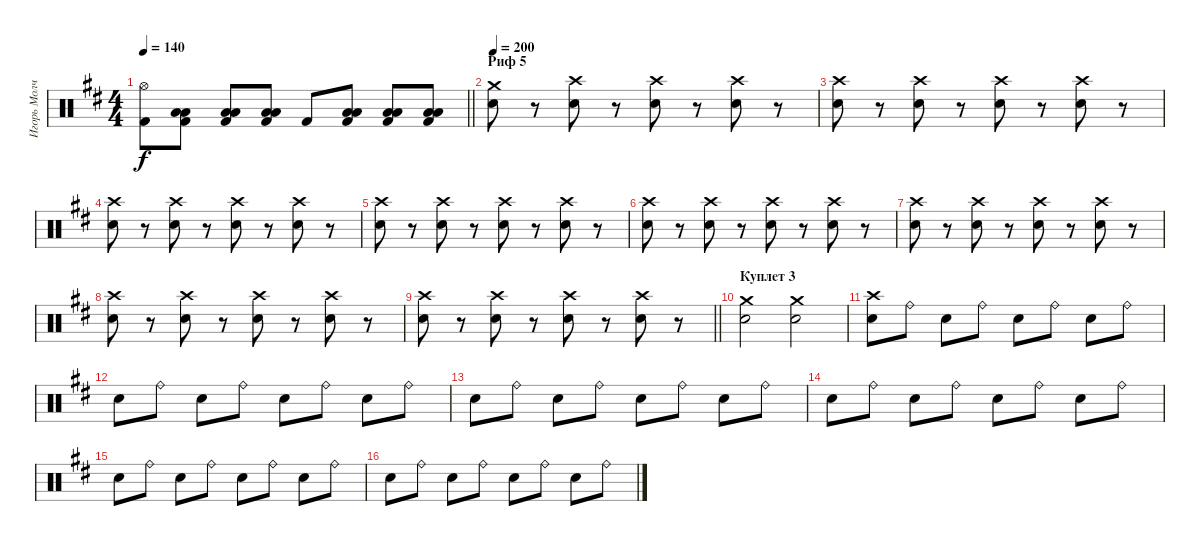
\track ("Игорь Молчанов" "Игорь Молч") {instrument percussion}
\staff {score}
\articulation defaults
\ts (4 4)
\tempo 140
\clef neutral
\barLineRight lightlight
\ks d
("Hi-Hat (open)" "Kick (hit) 2").8{dy f} ("Low Tom (hit)" "Low Tom (hit)" "Kick (hit) 2").8 ("Low Tom (hit)" "Low Tom (hit)" "Kick (hit) 2").8 ("Low Tom (hit)" "Low Tom (hit)" "Kick (hit) 2").8 "Kick (hit) 2".8 ("Low Floor Tom (hit)" "Low Floor Tom (hit)" "Kick (hit) 2").8 ("Low Floor Tom (hit)" "Low Floor Tom (hit)" "Kick (hit) 2").8 ("Low Floor Tom (hit)" "Low Floor Tom (hit)" "Kick (hit) 2").8 |
\section ("" "Риф 5")
\tempo 200
("Crash medium (hit)" "Snare (hit) 2").8 r.8 ("Crash high (hit)" "Snare (hit) 2").8 r.8 ("Crash high (hit)" "Snare (hit) 2").8 r.8 ("Crash high (hit)" "Snare (hit) 2").8 r.8 |
("Crash high (hit)" "Snare (hit) 2").8 r.8 ("Crash high (hit)" "Snare (hit) 2").8 r.8 ("Crash high (hit)" "Snare (hit) 2").8 r.8 ("Crash high (hit)" "Snare (hit) 2").8 r.8 |
("Crash high (hit)" "Snare (hit) 2").8 r.8 ("Crash high (hit)" "Snare (hit) 2").8 r.8 ("Crash high (hit)" "Snare (hit) 2").8 r.8 ("Crash high (hit)" "Snare (hit) 2").8 r.8 |
("Crash high (hit)" "Snare (hit) 2").8 r.8 ("Crash high (hit)" "Snare (hit) 2").8 r.8 ("Crash high (hit)" "Snare (hit) 2").8 r.8 ("Crash high (hit)" "Snare (hit) 2").8 r.8 |
("Crash high (hit)" "Snare (hit) 2").8 r.8 ("Crash high (hit)" "Snare (hit) 2").8 r.8 ("Crash high (hit)" "Snare (hit) 2").8 r.8 ("Crash high (hit)" "Snare (hit) 2").8 r.8 |
("Crash high (hit)" "Snare (hit) 2").8 r.8 ("Crash high (hit)" "Snare (hit) 2").8 r.8 ("Crash high (hit)" "Snare (hit) 2").8 r.8 ("Crash high (hit)" "Snare (hit) 2").8 r.8 |
("Crash high (hit)" "Snare (hit) 2").8 r.8 ("Crash high (hit)" "Snare (hit) 2").8 r.8 ("Crash high (hit)" "Snare (hit) 2").8 r.8 ("Crash high (hit)" "Snare (hit) 2").8 r.8 |
\barLineRight lightlight
("Crash high (hit)" "Snare (hit) 2").8 r.8 ("Crash high (hit)" "Snare (hit) 2").8 r.8 ("Crash high (hit)" "Snare (hit) 2").8 r.8 ("Crash high (hit)" "Snare (hit) 2").8 r.8 |
\section ("" "Куплет 3")
("Crash medium (hit)" "Snare (hit) 2").2 ("Crash medium (hit)" "Snare (hit) 2").2 |
("Crash high (hit)" "Snare (hit) 2").8 "Ride (bell)".8 "Snare (hit) 2".8 "Ride (bell)".8 "Snare (hit) 2".8 "Ride (bell)".8 "Snare (hit) 2".8 "Ride (bell)".8 |
"Snare (hit) 2".8 "Ride (bell)".8 "Snare (hit) 2".8 "Ride (bell)".8 "Snare (hit) 2".8 "Ride (bell)".8 "Snare (hit) 2".8 "Ride (bell)".8 |
"Snare (hit) 2".8 "Ride (bell)".8 "Snare (hit) 2".8 "Ride (bell)".8 "Snare (hit) 2".8 "Ride (bell)".8 "Snare (hit) 2".8 "Ride (bell)".8 |
"Snare (hit) 2".8 "Ride (bell)".8 "Snare (hit) 2".8 "Ride (bell)".8 "Snare (hit) 2".8 "Ride (bell)".8 "Snare (hit) 2".8 "Ride (bell)".8 |
"Snare (hit) 2".8 "Ride (bell)".8 "Snare (hit) 2".8 "Ride (bell)".8 "Snare (hit) 2".8 "Ride (bell)".8 "Snare (hit) 2".8 "Ride (bell)".8 |
"Snare (hit) 2".8 "Ride (bell)".8 "Snare (hit) 2".8 "Ride (bell)".8 "Snare (hit) 2".8 "Ride (bell)".8 "Snare (hit) 2".8 "Ride (bell)".8
